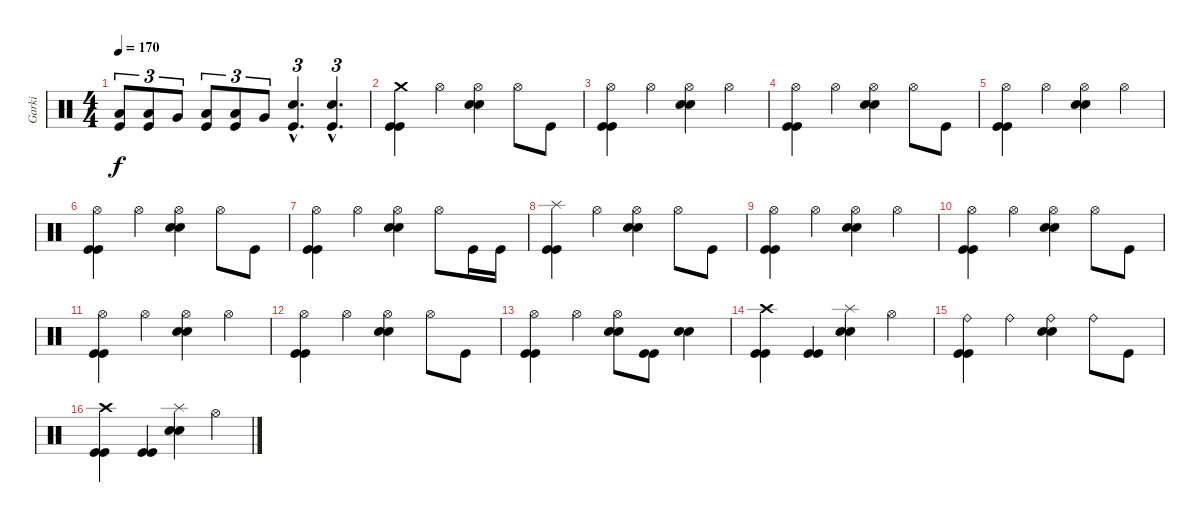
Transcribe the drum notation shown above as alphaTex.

\track ("Garki" "Garki") {instrument percussion}
\staff {score}
\articulation defaults
\ts (4 4)
\tempo 170
\clef neutral
\ks c
("Kick (hit)" "Low Floor Tom (hit)").8{tu (3 2) dy f} ("Kick (hit)" "Low Floor Tom (hit)").8{tu (3 2)} "Very Low Tom (hit)".8{tu (3 2)} ("Kick (hit)" "Low Floor Tom (hit)").8{tu (3 2)} ("Kick (hit)" "Low Floor Tom (hit)").8{tu (3 2)} "Very Low Tom (hit)".8{tu (3 2)} ("Kick (hit)"{hac} "Electric Snare (hit)"{hac}).4{d tu (3 2)} ("Kick (hit)"{hac} "Electric Snare (hit)"{hac}).4{d tu (3 2)} |
("Kick (hit)" "Kick (hit)" "Crash medium (hit)").4 "Hi-Hat (open)".4 ("Electric Snare (hit)" "Electric Snare (hit)" "Hi-Hat (open)").4 "Hi-Hat (open)".8 "Kick (hit)".8 |
("Kick (hit)" "Kick (hit)" "Hi-Hat (open)").4 "Hi-Hat (open)".4 ("Electric Snare (hit)" "Electric Snare (hit)" "Hi-Hat (open)").4 "Hi-Hat (open)".4 |
("Kick (hit)" "Kick (hit)" "Hi-Hat (open)").4 "Hi-Hat (open)".4 ("Electric Snare (hit)" "Electric Snare (hit)" "Hi-Hat (open)").4 "Hi-Hat (open)".8 "Kick (hit)".8 |
("Kick (hit)" "Kick (hit)" "Hi-Hat (open)").4 "Hi-Hat (open)".4 ("Electric Snare (hit)" "Electric Snare (hit)" "Hi-Hat (open)").4 "Hi-Hat (open)".4 |
("Kick (hit)" "Kick (hit)" "Hi-Hat (open)").4 "Hi-Hat (open)".4 ("Electric Snare (hit)" "Electric Snare (hit)" "Hi-Hat (open)").4 "Hi-Hat (open)".8 "Kick (hit)".8 |
("Kick (hit)" "Kick (hit)" "Hi-Hat (open)").4 "Hi-Hat (open)".4 ("Electric Snare (hit)" "Electric Snare (hit)" "Hi-Hat (open)").4 "Hi-Hat (open)".8 "Kick (hit)".16 "Kick (hit)".16 |
("Kick (hit)" "Kick (hit)" "Splash (hit)").4 "Hi-Hat (open)".4 ("Electric Snare (hit)" "Electric Snare (hit)" "Hi-Hat (open)").4 "Hi-Hat (open)".8 "Kick (hit)".8 |
("Kick (hit)" "Kick (hit)" "Hi-Hat (open)").4 "Hi-Hat (open)".4 ("Electric Snare (hit)" "Electric Snare (hit)" "Hi-Hat (open)").4 "Hi-Hat (open)".4 |
("Kick (hit)" "Kick (hit)" "Hi-Hat (open)").4 "Hi-Hat (open)".4 ("Electric Snare (hit)" "Electric Snare (hit)" "Hi-Hat (open)").4 "Hi-Hat (open)".8 "Kick (hit)".8 |
("Kick (hit)" "Kick (hit)" "Hi-Hat (open)").4 "Hi-Hat (open)".4 ("Electric Snare (hit)" "Electric Snare (hit)" "Hi-Hat (open)").4 "Hi-Hat (open)".4 |
("Kick (hit)" "Kick (hit)" "Hi-Hat (open)").4 "Hi-Hat (open)".4 ("Electric Snare (hit)" "Electric Snare (hit)" "Hi-Hat (open)").4 "Hi-Hat (open)".8 "Kick (hit)".8 |
("Kick (hit)" "Kick (hit)" "Hi-Hat (open)").4 "Hi-Hat (open)".4 ("Electric Snare (hit)" "Electric Snare (hit)" "Hi-Hat (open)").8 ("Kick (hit)" "Kick (hit)").8 ("Electric Snare (hit)" "Electric Snare (hit)").4 |
("Kick (hit)" "Kick (hit)" "Crash high (hit)").4 ("Kick (hit)" "Kick (hit)").4 ("Electric Snare (hit)" "Electric Snare (hit)" "Splash (hit)").4 "Hi-Hat (open)".4 |
("Kick (hit)" "Kick (hit)" "Ride (bell)").4 "Ride (bell)".4 ("Electric Snare (hit)" "Electric Snare (hit)" "Ride (bell)").4 "Ride (bell)".8 "Kick (hit)".8 |
("Kick (hit)" "Kick (hit)" "Crash high (hit)").4 ("Kick (hit)" "Kick (hit)").4 ("Electric Snare (hit)" "Electric Snare (hit)" "Splash (hit)").4 "Hi-Hat (open)".4
